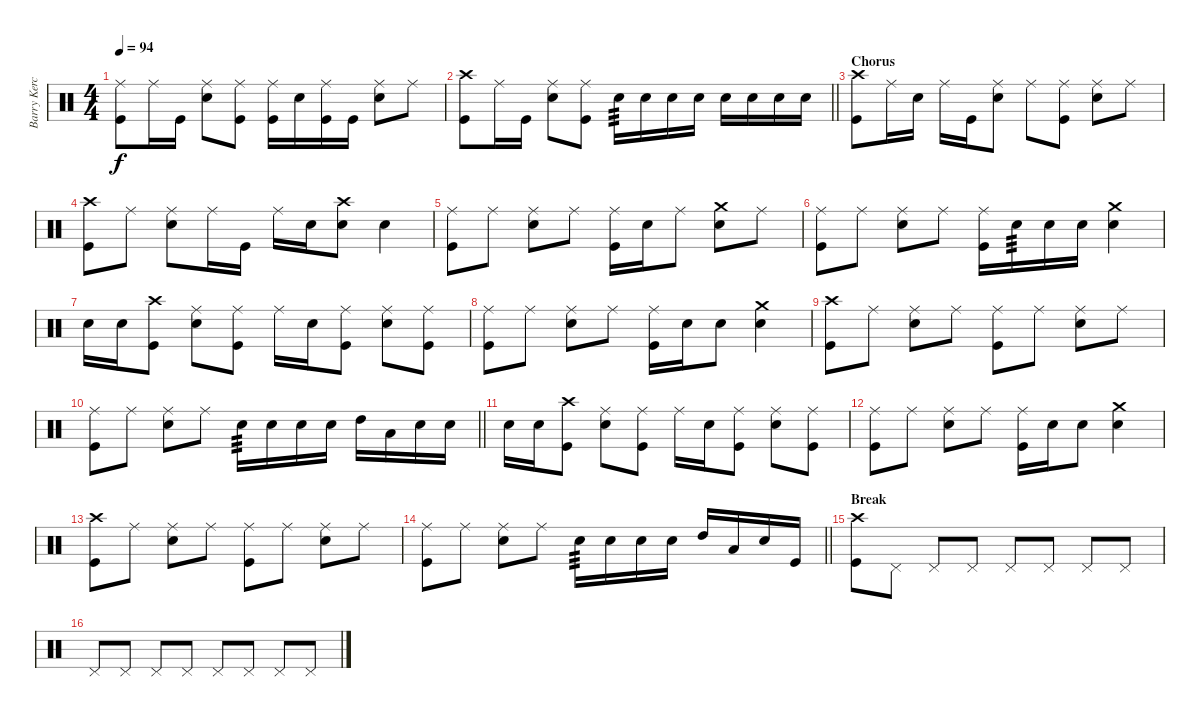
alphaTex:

\track ("Barry Kerch" "Barry Kerc") {instrument percussion}
\staff {score}
\articulation defaults
\ts (4 4)
\tempo 94
\clef neutral
\ks c
("Ride (middle)" "Kick (hit)").8{dy f} "Ride (middle)".16 "Kick (hit)".16 ("Ride (middle)" "Snare (hit) 2").8 ("Ride (middle)" "Kick (hit)").8 ("Ride (middle)" "Kick (hit)").16 "Snare (hit) 2".16 ("Ride (middle)" "Kick (hit)").16 "Kick (hit)".16 ("Ride (middle)" "Snare (hit) 2").8 "Ride (middle)".8 |
\barLineRight lightlight
("Crash high (hit)" "Kick (hit)").8 "Ride (middle)".16 "Kick (hit)".16 ("Ride (middle)" "Snare (hit) 2").8 ("Ride (middle)" "Kick (hit)").8 "Snare (hit) 2".16{tp 3} "Snare (hit) 2".16 "Snare (hit) 2".16 "Snare (hit) 2".16 "Snare (hit) 2".16 "Snare (hit) 2".16 "Snare (hit) 2".16 "Snare (hit) 2".16 |
\section ("" "Chorus")
("Crash high (hit)" "Kick (hit)").8 "Ride (middle)".16 "Snare (hit) 2".16 "Ride (middle)".16 "Kick (hit)".16 ("Ride (middle)" "Snare (hit) 2").8 "Ride (middle)".8 ("Ride (middle)" "Kick (hit)").8 ("Ride (middle)" "Snare (hit) 2").8 "Ride (middle)".8 |
("Crash high (hit)" "Kick (hit)").8 "Ride (middle)".8 ("Ride (middle)" "Snare (hit) 2").8 "Ride (middle)".16 "Kick (hit)".16 "Ride (middle)".16 "Snare (hit) 2".16 ("Crash high (hit)" "Snare (hit) 2").8 "Snare (hit) 2".4 |
("Ride (middle)" "Kick (hit)").8 "Ride (middle)".8 ("Ride (middle)" "Snare (hit) 2").8 "Ride (middle)".8 ("Ride (middle)" "Kick (hit)").16 "Snare (hit) 2".16 "Ride (middle)".8 ("Crash medium (hit)" "Snare (hit) 2").8 "Ride (middle)".8 |
("Ride (middle)" "Kick (hit)").8 "Ride (middle)".8 ("Ride (middle)" "Snare (hit) 2").8 "Ride (middle)".8 ("Ride (middle)" "Kick (hit)").16 "Snare (hit) 2".16{tp 3} "Snare (hit) 2".16 "Snare (hit) 2".16 ("Crash medium (hit)" "Snare (hit) 2").4 |
"Snare (hit) 2".16 "Snare (hit) 2".16 ("Crash high (hit)" "Kick (hit)").8 ("Ride (middle)" "Snare (hit) 2").8 ("Ride (middle)" "Kick (hit)").8 "Ride (middle)".16 "Snare (hit) 2".16 ("Ride (middle)" "Kick (hit)").8 ("Ride (middle)" "Snare (hit) 2").8 ("Ride (middle)" "Kick (hit)").8 |
("Ride (middle)" "Kick (hit)").8 "Ride (middle)".8 ("Ride (middle)" "Snare (hit) 2").8 "Ride (middle)".8 ("Ride (middle)" "Kick (hit)").16 "Snare (hit) 2".16 "Snare (hit) 2".8 ("Crash medium (hit)" "Snare (hit) 2").4 |
("Crash high (hit)" "Kick (hit)").8 "Ride (middle)".8 ("Ride (middle)" "Snare (hit) 2").8 "Ride (middle)".8 ("Ride (middle)" "Kick (hit)").8 "Ride (middle)".8 ("Ride (middle)" "Snare (hit) 2").8 "Ride (middle)".8 |
\barLineRight lightlight
("Ride (middle)" "Kick (hit)").8 "Ride (middle)".8 ("Ride (middle)" "Snare (hit) 2").8 "Ride (middle)".8 "Snare (hit) 2".16{tp 3} "Snare (hit) 2".16 "Snare (hit) 2".16 "Snare (hit) 2".16 "High Tom (hit)".16 "Low Tom (hit)".16 "Snare (hit) 2".16 "Snare (hit) 2".16 |
\section ("" "")
"Snare (hit) 2".16 "Snare (hit) 2".16 ("Crash high (hit)" "Kick (hit)").8 ("Ride (middle)" "Snare (hit) 2").8 ("Ride (middle)" "Kick (hit)").8 "Ride (middle)".16 "Snare (hit) 2".16 ("Ride (middle)" "Kick (hit)").8 ("Ride (middle)" "Snare (hit) 2").8 ("Ride (middle)" "Kick (hit)").8 |
("Ride (middle)" "Kick (hit)").8 "Ride (middle)".8 ("Ride (middle)" "Snare (hit) 2").8 "Ride (middle)".8 ("Ride (middle)" "Kick (hit)").16 "Snare (hit) 2".16 "Snare (hit) 2".8 ("Crash medium (hit)" "Snare (hit) 2").4 |
("Crash high (hit)" "Kick (hit)").8 "Ride (middle)".8 ("Ride (middle)" "Snare (hit) 2").8 "Ride (middle)".8 ("Ride (middle)" "Kick (hit)").8 "Ride (middle)".8 ("Ride (middle)" "Snare (hit) 2").8 "Ride (middle)".8 |
\barLineRight lightlight
("Ride (middle)" "Kick (hit)").8 "Ride (middle)".8 ("Ride (middle)" "Snare (hit) 2").8 "Ride (middle)".8 "Snare (hit) 2".16{tp 3} "Snare (hit) 2".16 "Snare (hit) 2".16 "Snare (hit) 2".16 "High Tom (hit)".16 "Low Tom (hit)".16 "Snare (hit) 2".16 "Kick (hit)".16 |
\section ("" "Break")
("Crash high (hit)" "Kick (hit)").8 "Pedal Hi-Hat (hit)".8 "Pedal Hi-Hat (hit)".8 "Pedal Hi-Hat (hit)".8 "Pedal Hi-Hat (hit)".8 "Pedal Hi-Hat (hit)".8 "Pedal Hi-Hat (hit)".8 "Pedal Hi-Hat (hit)".8 |
"Pedal Hi-Hat (hit)".8 "Pedal Hi-Hat (hit)".8 "Pedal Hi-Hat (hit)".8 "Pedal Hi-Hat (hit)".8 "Pedal Hi-Hat (hit)".8 "Pedal Hi-Hat (hit)".8 "Pedal Hi-Hat (hit)".8 "Pedal Hi-Hat (hit)".8
